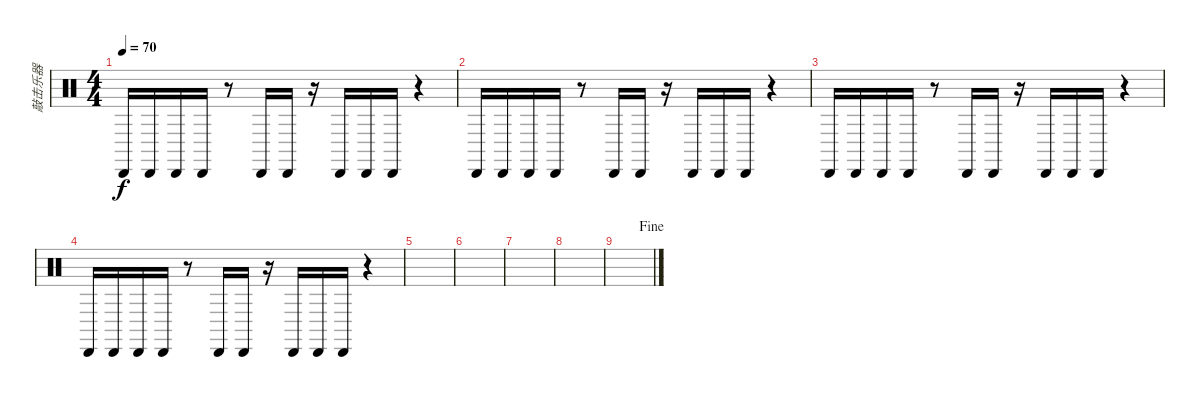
\track ("敲击乐器" "敲击乐器") {instrument percussion}
\staff {score}
\articulation defaults
\ts (4 4)
\tempo 70
\clef neutral
\ks c "Cabasa (hit)".16{dy f} "Cabasa (hit)".16 "Cabasa (hit)".16 "Cabasa (hit)".16
r.8 "Cabasa (hit)".16 "Cabasa (hit)".16 r.16 "Cabasa (hit)".16 "Cabasa (hit)".16 "Cabasa (hit)".16 r.4 |
"Cabasa (hit)".16 "Cabasa (hit)".16 "Cabasa (hit)".16 "Cabasa (hit)".16 r.8 "Cabasa (hit)".16 "Cabasa (hit)".16 r.16 "Cabasa (hit)".16 "Cabasa (hit)".16 "Cabasa (hit)".16 r.4 |
"Cabasa (hit)".16 "Cabasa (hit)".16 "Cabasa (hit)".16 "Cabasa (hit)".16 r.8 "Cabasa (hit)".16 "Cabasa (hit)".16 r.16 "Cabasa (hit)".16 "Cabasa (hit)".16 "Cabasa (hit)".16 r.4 |
"Cabasa (hit)".16 "Cabasa (hit)".16 "Cabasa (hit)".16 "Cabasa (hit)".16 r.8 "Cabasa (hit)".16 "Cabasa (hit)".16 r.16 "Cabasa (hit)".16 "Cabasa (hit)".16 "Cabasa (hit)".16 r.4 |
|
|
|
|
\jump fine
